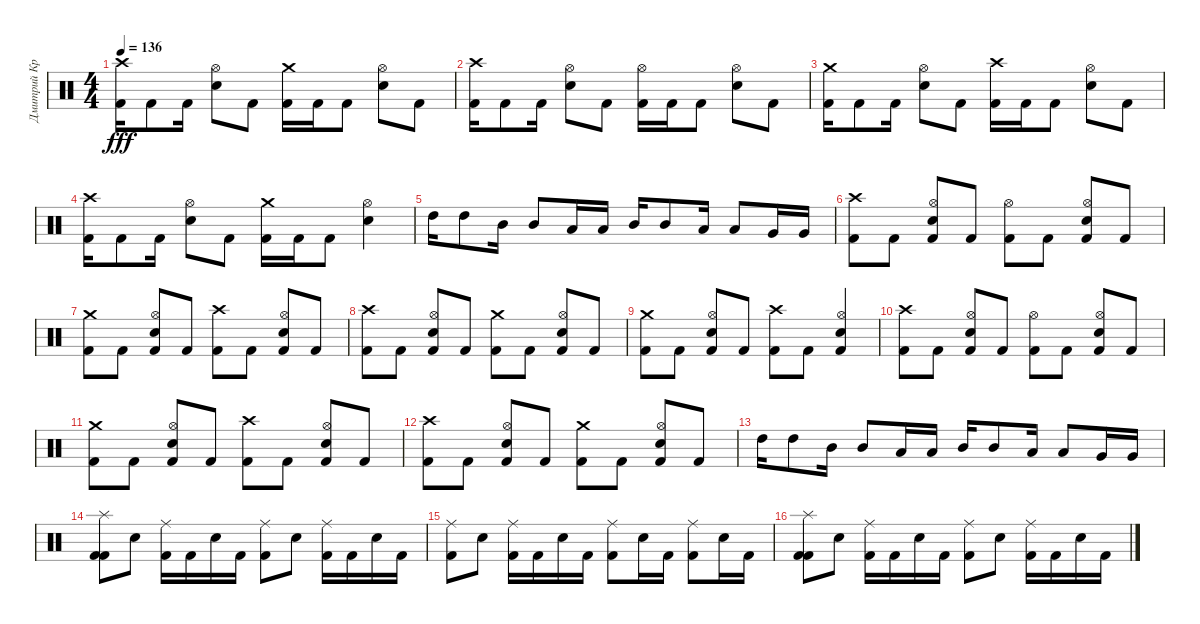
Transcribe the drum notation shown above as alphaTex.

\track ("Дмитрий Кривенков" "Дмитрий Кр") {instrument percussion}
\staff {score}
\articulation defaults
\ts (4 4)
\tempo 136
\clef neutral
\ks c
("Crash high (hit)" "Kick (hit) 2").16{dy fff} "Kick (hit) 2".8 "Kick (hit) 2".16 ("Hi-Hat (open)" "Electric Snare (hit)").8 "Kick (hit) 2".8 ("Crash medium (hit)" "Kick (hit) 2").16 "Kick (hit) 2".16 "Kick (hit) 2".8 ("Hi-Hat (open)" "Electric Snare (hit)").8 "Kick (hit) 2".8 |
("Crash high (hit)" "Kick (hit) 2").16 "Kick (hit) 2".8 "Kick (hit) 2".16 ("Hi-Hat (open)" "Electric Snare (hit)").8 "Kick (hit) 2".8 ("Hi-Hat (open)" "Kick (hit) 2").16 "Kick (hit) 2".16 "Kick (hit) 2".8 ("Hi-Hat (open)" "Electric Snare (hit)").8 "Kick (hit) 2".8 |
("Kick (hit) 2" "Crash medium (hit)").16 "Kick (hit) 2".8 "Kick (hit) 2".16 ("Hi-Hat (open)" "Electric Snare (hit)").8 "Kick (hit) 2".8 ("Kick (hit) 2" "Crash high (hit)").16 "Kick (hit) 2".16 "Kick (hit) 2".8 ("Hi-Hat (open)" "Electric Snare (hit)").8 "Kick (hit) 2".8 |
("Kick (hit) 2" "Crash high (hit)").16 "Kick (hit) 2".8 "Kick (hit) 2".16 ("Electric Snare (hit)" "Hi-Hat (open)").8 "Kick (hit) 2".8 ("Kick (hit) 2" "Crash medium (hit)").16 "Kick (hit) 2".16 "Kick (hit) 2".8 ("Electric Snare (hit)" "Hi-Hat (open)").4 |
"High Tom (hit)".16 "High Tom (hit)".8 "Mid Tom (hit)".16 "Mid Tom (hit)".8 "Low Tom (hit)".16 "Low Tom (hit)".16 "Mid Tom (hit)".16 "Mid Tom (hit)".8 "Low Tom (hit)".16 "Low Tom (hit)".8 "Very Low Tom (hit)".16 "Very Low Tom (hit)".16 |
("Crash high (hit)" "Kick (hit) 2").8 "Kick (hit) 2".8 ("Hi-Hat (open)" "Kick (hit) 2" "Electric Snare (hit)").8 "Kick (hit) 2".8 ("Hi-Hat (open)" "Kick (hit) 2").8 "Kick (hit) 2".8 ("Hi-Hat (open)" "Kick (hit) 2" "Electric Snare (hit)").8 "Kick (hit) 2".8 |
("Kick (hit) 2" "Crash medium (hit)").8 "Kick (hit) 2".8 ("Electric Snare (hit)" "Kick (hit) 2" "Hi-Hat (open)").8 "Kick (hit) 2".8 ("Kick (hit) 2" "Crash high (hit)").8 "Kick (hit) 2".8 ("Electric Snare (hit)" "Kick (hit) 2" "Hi-Hat (open)").8 "Kick (hit) 2".8 |
("Crash high (hit)" "Kick (hit) 2").8 "Kick (hit) 2".8 ("Electric Snare (hit)" "Hi-Hat (open)" "Kick (hit) 2").8 "Kick (hit) 2".8 ("Crash medium (hit)" "Kick (hit) 2").8 "Kick (hit) 2".8 ("Electric Snare (hit)" "Hi-Hat (open)" "Kick (hit) 2").8 "Kick (hit) 2".8 |
("Crash medium (hit)" "Kick (hit) 2").8 "Kick (hit) 2".8 ("Hi-Hat (open)" "Electric Snare (hit)" "Kick (hit) 2").8 "Kick (hit) 2".8 ("Crash high (hit)" "Kick (hit) 2").8 "Kick (hit) 2".8 ("Hi-Hat (open)" "Electric Snare (hit)" "Kick (hit) 2").4 |
("Crash high (hit)" "Kick (hit) 2").8 "Kick (hit) 2".8 ("Kick (hit) 2" "Electric Snare (hit)" "Hi-Hat (open)").8 "Kick (hit) 2".8 ("Hi-Hat (open)" "Kick (hit) 2").8 "Kick (hit) 2".8 ("Electric Snare (hit)" "Kick (hit) 2" "Hi-Hat (open)").8 "Kick (hit) 2".8 |
("Kick (hit) 2" "Crash medium (hit)").8 "Kick (hit) 2".8 ("Electric Snare (hit)" "Hi-Hat (open)" "Kick (hit) 2").8 "Kick (hit) 2".8 ("Kick (hit) 2" "Crash high (hit)").8 "Kick (hit) 2".8 ("Electric Snare (hit)" "Hi-Hat (open)" "Kick (hit) 2").8 "Kick (hit) 2".8 |
("Kick (hit) 2" "Crash high (hit)").8 "Kick (hit) 2".8 ("Electric Snare (hit)" "Hi-Hat (open)" "Kick (hit) 2").8 "Kick (hit) 2".8 ("Crash medium (hit)" "Kick (hit) 2").8 "Kick (hit) 2".8 ("Electric Snare (hit)" "Hi-Hat (open)" "Kick (hit) 2").8 "Kick (hit) 2".8 |
"High Tom (hit)".16 "High Tom (hit)".8 "Mid Tom (hit)".16 "Mid Tom (hit)".8 "Low Tom (hit)".16 "Low Tom (hit)".16 "Mid Tom (hit)".16 "Mid Tom (hit)".8 "Low Tom (hit)".16 "Low Tom (hit)".8 "Very Low Tom (hit)".16 "Very Low Tom (hit)".16 |
("Splash (hit)" "Kick (hit) 2" "Kick (hit) 2").8 "Electric Snare (hit)".8 ("Kick (hit) 2" "Ride (middle)").16 "Kick (hit) 2".16 "Electric Snare (hit)".16 "Kick (hit) 2".16 ("Kick (hit) 2" "Ride (middle)").8 "Electric Snare (hit)".8 ("Ride (middle)" "Kick (hit) 2").16 "Kick (hit) 2".16 "Electric Snare (hit)".16 "Kick (hit) 2".16 |
("Ride (middle)" "Kick (hit) 2").8 "Electric Snare (hit)".8 ("Ride (middle)" "Kick (hit) 2").16 "Kick (hit) 2".16 "Electric Snare (hit)".16 "Kick (hit) 2".16 ("Kick (hit) 2" "Ride (middle)").8 "Electric Snare (hit)".16 "Kick (hit) 2".16 ("Ride (middle)" "Kick (hit) 2").8 "Electric Snare (hit)".16 "Kick (hit) 2".16 |
("Kick (hit) 2" "Kick (hit) 2" "Splash (hit)").8 "Electric Snare (hit)".8 ("Ride (middle)" "Kick (hit) 2").16 "Kick (hit) 2".16 "Electric Snare (hit)".16 "Kick (hit) 2".16 ("Ride (middle)" "Kick (hit) 2").8 "Electric Snare (hit)".8 ("Ride (middle)" "Kick (hit) 2").16 "Kick (hit) 2".16 "Electric Snare (hit)".16 "Kick (hit) 2".16
